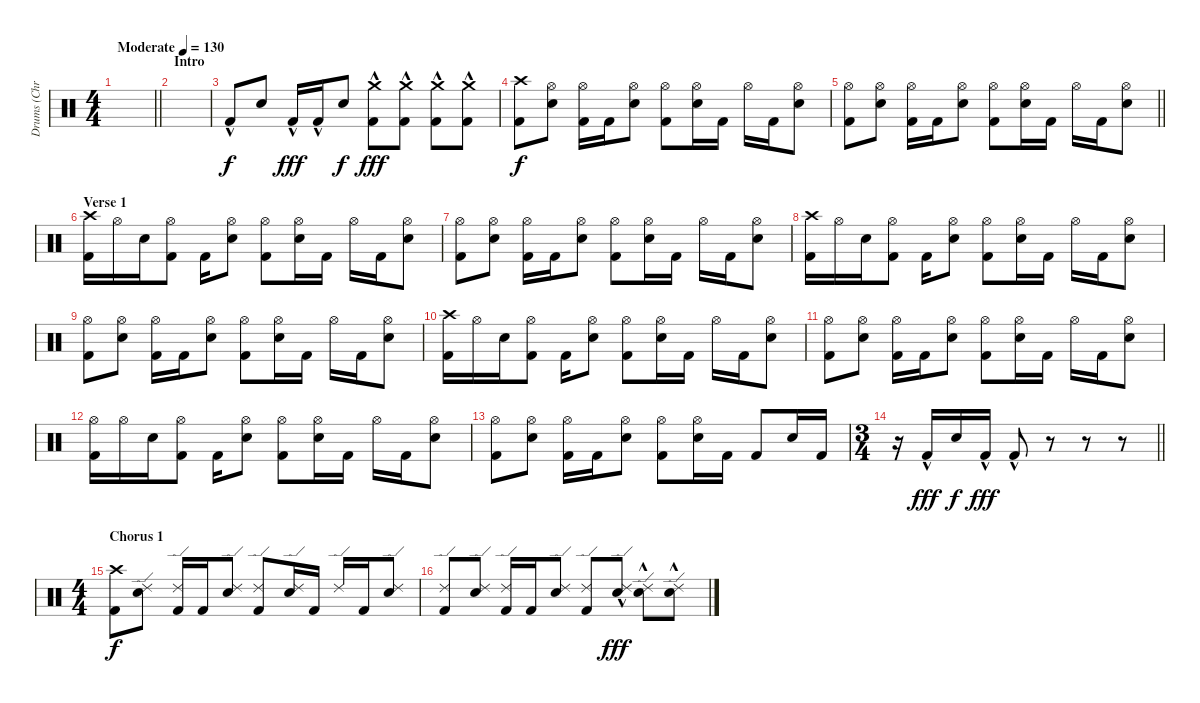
\track ("Drums (Chris Greer)" "Drums (Chr") {instrument percussion}
\staff {score}
\articulation defaults
\ts (4 4)
\tempo (130 "Moderate")
\clef neutral
\barLineRight lightlight
\ks c
|
\section ("" "Intro")
|
"Kick (hit) 2"{hac}.8 "Electric Snare (hit)".8{dy f} "Kick (hit) 2"{hac}.16{dy fff} "Kick (hit) 2"{hac}.16 "Electric Snare (hit)".8{dy f} ("Crash medium (hit)" "Kick (hit) 2"{hac}).8{dy fff} ("Crash medium (hit)" "Kick (hit) 2"{hac}).8 ("Crash medium (hit)" "Kick (hit) 2"{hac}).8 ("Crash medium (hit)" "Kick (hit) 2"{hac}).8 |
("Crash high (hit)" "Kick (hit) 2").8{dy f} ("Hi-Hat (open)" "Electric Snare (hit)").8 ("Hi-Hat (open)" "Kick (hit) 2").16 "Kick (hit) 2".16 ("Hi-Hat (open)" "Electric Snare (hit)").8 ("Hi-Hat (open)" "Kick (hit) 2").8 ("Hi-Hat (open)" "Electric Snare (hit)").16 "Kick (hit) 2".16 "Hi-Hat (open)".16 "Kick (hit) 2".16 ("Hi-Hat (open)" "Electric Snare (hit)").8 |
\barLineRight lightlight
("Hi-Hat (open)" "Kick (hit) 2").8 ("Hi-Hat (open)" "Electric Snare (hit)").8 ("Hi-Hat (open)" "Kick (hit) 2").16 "Kick (hit) 2".16 ("Hi-Hat (open)" "Electric Snare (hit)").8 ("Hi-Hat (open)" "Kick (hit) 2").8 ("Hi-Hat (open)" "Electric Snare (hit)").16 "Kick (hit) 2".16 "Hi-Hat (open)".16 "Kick (hit) 2".16 ("Hi-Hat (open)" "Electric Snare (hit)").8 |
\section ("" "Verse 1 ")
("Crash high (hit)" "Kick (hit) 2").16 "Hi-Hat (open)".16 "Electric Snare (hit)".16 ("Hi-Hat (open)" "Kick (hit) 2").8 "Kick (hit) 2".16 ("Hi-Hat (open)" "Electric Snare (hit)").8 ("Hi-Hat (open)" "Kick (hit) 2").8 ("Hi-Hat (open)" "Electric Snare (hit)").16 "Kick (hit) 2".16 "Hi-Hat (open)".16 "Kick (hit) 2".16 ("Hi-Hat (open)" "Electric Snare (hit)").8 |
("Hi-Hat (open)" "Kick (hit) 2").8 ("Hi-Hat (open)" "Electric Snare (hit)").8 ("Hi-Hat (open)" "Kick (hit) 2").16 "Kick (hit) 2".16 ("Hi-Hat (open)" "Electric Snare (hit)").8 ("Hi-Hat (open)" "Kick (hit) 2").8 ("Hi-Hat (open)" "Electric Snare (hit)").16 "Kick (hit) 2".16 "Hi-Hat (open)".16 "Kick (hit) 2".16 ("Hi-Hat (open)" "Electric Snare (hit)").8 |
("Crash high (hit)" "Kick (hit) 2").16 "Hi-Hat (open)".16 "Electric Snare (hit)".16 ("Hi-Hat (open)" "Kick (hit) 2").8 "Kick (hit) 2".16 ("Hi-Hat (open)" "Electric Snare (hit)").8 ("Hi-Hat (open)" "Kick (hit) 2").8 ("Hi-Hat (open)" "Electric Snare (hit)").16 "Kick (hit) 2".16 "Hi-Hat (open)".16 "Kick (hit) 2".16 ("Hi-Hat (open)" "Electric Snare (hit)").8 |
("Hi-Hat (open)" "Kick (hit) 2").8 ("Hi-Hat (open)" "Electric Snare (hit)").8 ("Hi-Hat (open)" "Kick (hit) 2").16 "Kick (hit) 2".16 ("Hi-Hat (open)" "Electric Snare (hit)").8 ("Hi-Hat (open)" "Kick (hit) 2").8 ("Hi-Hat (open)" "Electric Snare (hit)").16 "Kick (hit) 2".16 "Hi-Hat (open)".16 "Kick (hit) 2".16 ("Hi-Hat (open)" "Electric Snare (hit)").8 |
("Crash high (hit)" "Kick (hit) 2").16 "Hi-Hat (open)".16 "Electric Snare (hit)".16 ("Hi-Hat (open)" "Kick (hit) 2").8 "Kick (hit) 2".16 ("Hi-Hat (open)" "Electric Snare (hit)").8 ("Hi-Hat (open)" "Kick (hit) 2").8 ("Hi-Hat (open)" "Electric Snare (hit)").16 "Kick (hit) 2".16 "Hi-Hat (open)".16 "Kick (hit) 2".16 ("Hi-Hat (open)" "Electric Snare (hit)").8 |
("Hi-Hat (open)" "Kick (hit) 2").8 ("Hi-Hat (open)" "Electric Snare (hit)").8 ("Hi-Hat (open)" "Kick (hit) 2").16 "Kick (hit) 2".16 ("Hi-Hat (open)" "Electric Snare (hit)").8 ("Hi-Hat (open)" "Kick (hit) 2").8 ("Hi-Hat (open)" "Electric Snare (hit)").16 "Kick (hit) 2".16 "Hi-Hat (open)".16 "Kick (hit) 2".16 ("Hi-Hat (open)" "Electric Snare (hit)").8 |
("Hi-Hat (open)" "Kick (hit) 2").16 "Hi-Hat (open)".16 "Electric Snare (hit)".16 ("Hi-Hat (open)" "Kick (hit) 2").8 "Kick (hit) 2".16 ("Hi-Hat (open)" "Electric Snare (hit)").8 ("Hi-Hat (open)" "Kick (hit) 2").8 ("Hi-Hat (open)" "Electric Snare (hit)").16 "Kick (hit) 2".16 "Hi-Hat (open)".16 "Kick (hit) 2".16 ("Hi-Hat (open)" "Electric Snare (hit)").8 |
("Hi-Hat (open)" "Kick (hit) 2").8 ("Hi-Hat (open)" "Electric Snare (hit)").8 ("Hi-Hat (open)" "Kick (hit) 2").16 "Kick (hit) 2".16 ("Hi-Hat (open)" "Electric Snare (hit)").8 ("Hi-Hat (open)" "Kick (hit) 2").8 ("Hi-Hat (open)" "Electric Snare (hit)").16 "Kick (hit) 2".16 "Kick (hit) 2".8 "Electric Snare (hit)".16 "Kick (hit) 2".16 |
\ts (3 4)
\barLineRight lightlight
r.16 "Kick (hit) 2"{hac}.16{dy fff} "Electric Snare (hit)".16{dy f} "Kick (hit) 2"{hac}.16{dy fff} "Kick (hit) 2"{hac}.8 r.8 r.8 r.8 |
\ts (4 4)
\section ("" "Chorus 1")
("Crash high (hit)" "Kick (hit) 2").8{dy f} ("Ride (edge) 2" "Electric Snare (hit)").8 ("Ride (edge) 2" "Kick (hit) 2").16 "Kick (hit) 2".16 ("Ride (edge) 2" "Electric Snare (hit)").8 ("Ride (edge) 2" "Kick (hit) 2").8 ("Ride (edge) 2" "Electric Snare (hit)").16 "Kick (hit) 2".16 "Ride (edge) 2".16 "Kick (hit) 2".16 ("Ride (edge) 2" "Electric Snare (hit)").8 |
("Ride (edge) 2" "Kick (hit) 2").8 ("Ride (edge) 2" "Electric Snare (hit)").8 ("Ride (edge) 2" "Kick (hit) 2").16 "Kick (hit) 2".16 ("Ride (edge) 2" "Electric Snare (hit)").8 ("Ride (edge) 2" "Kick (hit) 2").8 ("Ride (edge) 2" "Electric Snare (hit)"{hac}).8{dy fff} ("Ride (edge) 2" "Electric Snare (hit)"{hac}).8 ("Ride (edge) 2" "Electric Snare (hit)"{hac}).8
